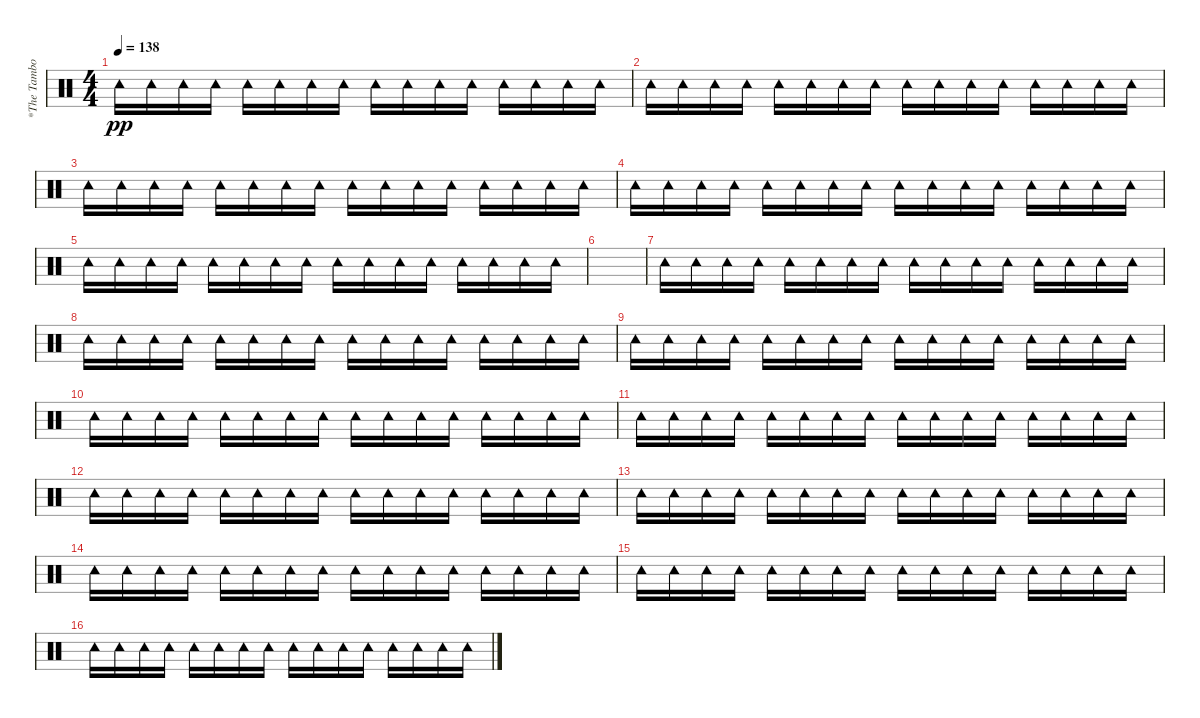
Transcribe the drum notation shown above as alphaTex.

\track ("*The Tambourine" "*The Tambo") {instrument percussion}
\staff {score}
\articulation defaults
\ts (4 4)
\tempo 138
\clef neutral
\ks c "Tambourine (hit)".16{dy pp} "Tambourine (hit)".16 "Tambourine (hit)".16 "Tambourine (hit)".16 "Tambourine (hit)".16 "Tambourine (hit)".16 "Tambourine (hit)".16 "Tambourine (hit)".16 "Tambourine (hit)".16 "Tambourine (hit)".16 "Tambourine (hit)".16 "Tambourine (hit)".16 "Tambourine (hit)".16 "Tambourine (hit)".16 "Tambourine (hit)".16 "Tambourine (hit)".16
|
"Tambourine (hit)".16 "Tambourine (hit)".16 "Tambourine (hit)".16 "Tambourine (hit)".16 "Tambourine (hit)".16 "Tambourine (hit)".16 "Tambourine (hit)".16 "Tambourine (hit)".16 "Tambourine (hit)".16 "Tambourine (hit)".16 "Tambourine (hit)".16 "Tambourine (hit)".16 "Tambourine (hit)".16 "Tambourine (hit)".16 "Tambourine (hit)".16 "Tambourine (hit)".16 |
"Tambourine (hit)".16 "Tambourine (hit)".16 "Tambourine (hit)".16 "Tambourine (hit)".16 "Tambourine (hit)".16 "Tambourine (hit)".16 "Tambourine (hit)".16 "Tambourine (hit)".16 "Tambourine (hit)".16 "Tambourine (hit)".16 "Tambourine (hit)".16 "Tambourine (hit)".16 "Tambourine (hit)".16 "Tambourine (hit)".16 "Tambourine (hit)".16 "Tambourine (hit)".16 |
"Tambourine (hit)".16 "Tambourine (hit)".16 "Tambourine (hit)".16 "Tambourine (hit)".16 "Tambourine (hit)".16 "Tambourine (hit)".16 "Tambourine (hit)".16 "Tambourine (hit)".16 "Tambourine (hit)".16 "Tambourine (hit)".16 "Tambourine (hit)".16 "Tambourine (hit)".16 "Tambourine (hit)".16 "Tambourine (hit)".16 "Tambourine (hit)".16 "Tambourine (hit)".16 |
"Tambourine (hit)".16 "Tambourine (hit)".16 "Tambourine (hit)".16 "Tambourine (hit)".16 "Tambourine (hit)".16 "Tambourine (hit)".16 "Tambourine (hit)".16 "Tambourine (hit)".16 "Tambourine (hit)".16 "Tambourine (hit)".16 "Tambourine (hit)".16 "Tambourine (hit)".16 "Tambourine (hit)".16 "Tambourine (hit)".16 "Tambourine (hit)".16 "Tambourine (hit)".16 |
|
"Tambourine (hit)".16 "Tambourine (hit)".16 "Tambourine (hit)".16 "Tambourine (hit)".16 "Tambourine (hit)".16 "Tambourine (hit)".16 "Tambourine (hit)".16 "Tambourine (hit)".16 "Tambourine (hit)".16 "Tambourine (hit)".16 "Tambourine (hit)".16 "Tambourine (hit)".16 "Tambourine (hit)".16 "Tambourine (hit)".16 "Tambourine (hit)".16 "Tambourine (hit)".16 |
"Tambourine (hit)".16 "Tambourine (hit)".16 "Tambourine (hit)".16 "Tambourine (hit)".16 "Tambourine (hit)".16 "Tambourine (hit)".16 "Tambourine (hit)".16 "Tambourine (hit)".16 "Tambourine (hit)".16 "Tambourine (hit)".16 "Tambourine (hit)".16 "Tambourine (hit)".16 "Tambourine (hit)".16 "Tambourine (hit)".16 "Tambourine (hit)".16 "Tambourine (hit)".16 |
"Tambourine (hit)".16 "Tambourine (hit)".16 "Tambourine (hit)".16 "Tambourine (hit)".16 "Tambourine (hit)".16 "Tambourine (hit)".16 "Tambourine (hit)".16 "Tambourine (hit)".16 "Tambourine (hit)".16 "Tambourine (hit)".16 "Tambourine (hit)".16 "Tambourine (hit)".16 "Tambourine (hit)".16 "Tambourine (hit)".16 "Tambourine (hit)".16 "Tambourine (hit)".16 |
"Tambourine (hit)".16 "Tambourine (hit)".16 "Tambourine (hit)".16 "Tambourine (hit)".16 "Tambourine (hit)".16 "Tambourine (hit)".16 "Tambourine (hit)".16 "Tambourine (hit)".16 "Tambourine (hit)".16 "Tambourine (hit)".16 "Tambourine (hit)".16 "Tambourine (hit)".16 "Tambourine (hit)".16 "Tambourine (hit)".16 "Tambourine (hit)".16 "Tambourine (hit)".16 |
"Tambourine (hit)".16 "Tambourine (hit)".16 "Tambourine (hit)".16 "Tambourine (hit)".16 "Tambourine (hit)".16 "Tambourine (hit)".16 "Tambourine (hit)".16 "Tambourine (hit)".16 "Tambourine (hit)".16 "Tambourine (hit)".16 "Tambourine (hit)".16 "Tambourine (hit)".16 "Tambourine (hit)".16 "Tambourine (hit)".16 "Tambourine (hit)".16 "Tambourine (hit)".16 |
"Tambourine (hit)".16 "Tambourine (hit)".16 "Tambourine (hit)".16 "Tambourine (hit)".16 "Tambourine (hit)".16 "Tambourine (hit)".16 "Tambourine (hit)".16 "Tambourine (hit)".16 "Tambourine (hit)".16 "Tambourine (hit)".16 "Tambourine (hit)".16 "Tambourine (hit)".16 "Tambourine (hit)".16 "Tambourine (hit)".16 "Tambourine (hit)".16 "Tambourine (hit)".16 |
"Tambourine (hit)".16 "Tambourine (hit)".16 "Tambourine (hit)".16 "Tambourine (hit)".16 "Tambourine (hit)".16 "Tambourine (hit)".16 "Tambourine (hit)".16 "Tambourine (hit)".16 "Tambourine (hit)".16 "Tambourine (hit)".16 "Tambourine (hit)".16 "Tambourine (hit)".16 "Tambourine (hit)".16 "Tambourine (hit)".16 "Tambourine (hit)".16 "Tambourine (hit)".16 |
"Tambourine (hit)".16 "Tambourine (hit)".16 "Tambourine (hit)".16 "Tambourine (hit)".16 "Tambourine (hit)".16 "Tambourine (hit)".16 "Tambourine (hit)".16 "Tambourine (hit)".16 "Tambourine (hit)".16 "Tambourine (hit)".16 "Tambourine (hit)".16 "Tambourine (hit)".16 "Tambourine (hit)".16 "Tambourine (hit)".16 "Tambourine (hit)".16 "Tambourine (hit)".16 |
"Tambourine (hit)".16 "Tambourine (hit)".16 "Tambourine (hit)".16 "Tambourine (hit)".16 "Tambourine (hit)".16 "Tambourine (hit)".16 "Tambourine (hit)".16 "Tambourine (hit)".16 "Tambourine (hit)".16 "Tambourine (hit)".16 "Tambourine (hit)".16 "Tambourine (hit)".16 "Tambourine (hit)".16 "Tambourine (hit)".16 "Tambourine (hit)".16 "Tambourine (hit)".16 |
"Tambourine (hit)".16 "Tambourine (hit)".16 "Tambourine (hit)".16 "Tambourine (hit)".16 "Tambourine (hit)".16 "Tambourine (hit)".16 "Tambourine (hit)".16 "Tambourine (hit)".16 "Tambourine (hit)".16 "Tambourine (hit)".16 "Tambourine (hit)".16 "Tambourine (hit)".16 "Tambourine (hit)".16 "Tambourine (hit)".16 "Tambourine (hit)".16 "Tambourine (hit)".16
